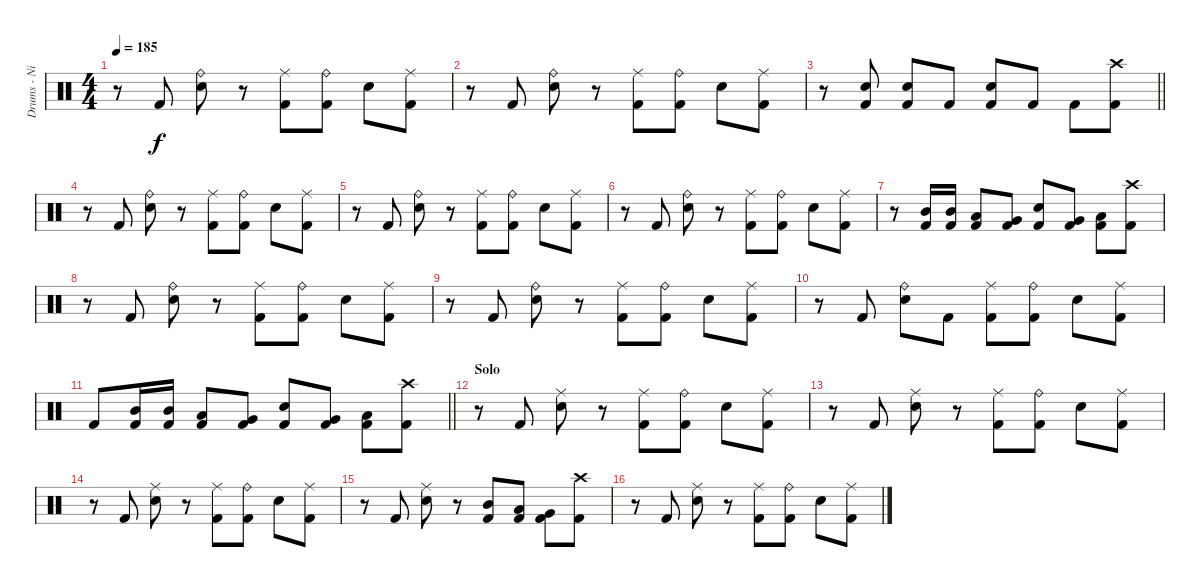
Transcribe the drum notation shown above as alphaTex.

\track ("Drums - Nicko" "Drums - Ni") {instrument percussion}
\staff {score}
\articulation defaults
\ts (4 4)
\tempo 185
\clef neutral
\ks c
r.8{dy f} "Kick (hit) 2".8 ("Ride (bell)" "Snare (hit) 2").8 r.8 ("Ride (middle)" "Kick (hit) 2").8 ("Ride (bell)" "Kick (hit) 2").8 "Snare (hit) 2".8 ("Ride (middle)" "Kick (hit) 2").8 |
r.8 "Kick (hit) 2".8 ("Ride (bell)" "Snare (hit) 2").8 r.8 ("Ride (middle)" "Kick (hit) 2").8 ("Ride (bell)" "Kick (hit) 2").8 "Snare (hit) 2".8 ("Ride (middle)" "Kick (hit) 2").8 |
\barLineRight lightlight
r.8 ("Snare (hit) 2" "Kick (hit) 2").8 ("Snare (hit) 2" "Kick (hit) 2").8 "Kick (hit) 2".8 ("Snare (hit) 2" "Kick (hit) 2").8 "Kick (hit) 2".8 "Kick (hit) 2".8 ("Crash high (hit)" "Kick (hit) 2").8 |
\section ("" "")
r.8 "Kick (hit) 2".8 ("Ride (bell)" "Snare (hit) 2").8 r.8 ("Ride (middle)" "Kick (hit) 2").8 ("Ride (bell)" "Kick (hit) 2").8 "Snare (hit) 2".8 ("Ride (middle)" "Kick (hit) 2").8 |
r.8 "Kick (hit) 2".8 ("Ride (bell)" "Snare (hit) 2").8 r.8 ("Ride (middle)" "Kick (hit) 2").8 ("Ride (bell)" "Kick (hit) 2").8 "Snare (hit) 2".8 ("Ride (middle)" "Kick (hit) 2").8 |
r.8 "Kick (hit) 2".8 ("Ride (bell)" "Snare (hit) 2").8 r.8 ("Ride (middle)" "Kick (hit) 2").8 ("Ride (bell)" "Kick (hit) 2").8 "Snare (hit) 2".8 ("Ride (middle)" "Kick (hit) 2").8 |
r.8 ("Mid Tom (hit)" "Kick (hit) 2").16 ("Mid Tom (hit)" "Kick (hit) 2").16 ("Low Tom (hit)" "Kick (hit) 2").8 ("Very Low Tom (hit)" "Kick (hit) 2").8 ("Snare (hit) 2" "Kick (hit) 2").8 ("Very Low Tom (hit)" "Kick (hit) 2").8 ("Low Floor Tom (hit)" "Kick (hit) 2").8 ("Crash high (hit)" "Kick (hit) 2").8 |
r.8 "Kick (hit) 2".8 ("Ride (bell)" "Snare (hit) 2").8 r.8 ("Ride (middle)" "Kick (hit) 2").8 ("Ride (bell)" "Kick (hit) 2").8 "Snare (hit) 2".8 ("Ride (middle)" "Kick (hit) 2").8 |
r.8 "Kick (hit) 2".8 ("Ride (bell)" "Snare (hit) 2").8 r.8 ("Ride (middle)" "Kick (hit) 2").8 ("Ride (bell)" "Kick (hit) 2").8 "Snare (hit) 2".8 ("Ride (middle)" "Kick (hit) 2").8 |
r.8 "Kick (hit) 2".8 ("Ride (bell)" "Snare (hit) 2").8 "Kick (hit) 2".8 ("Ride (middle)" "Kick (hit) 2").8 ("Ride (bell)" "Kick (hit) 2").8 "Snare (hit) 2".8 ("Ride (middle)" "Kick (hit) 2").8 |
\barLineRight lightlight "Kick (hit) 2".8
("Mid Tom (hit)" "Kick (hit) 2").16 ("Mid Tom (hit)" "Kick (hit) 2").16 ("Low Tom (hit)" "Kick (hit) 2").8 ("Very Low Tom (hit)" "Kick (hit) 2").8 ("Snare (hit) 2" "Kick (hit) 2").8 ("Very Low Tom (hit)" "Kick (hit) 2").8 ("Low Floor Tom (hit)" "Kick (hit) 2").8 ("Crash high (hit)" "Kick (hit) 2").8 |
\section ("" "Solo")
r.8 "Kick (hit) 2".8 ("Ride (middle)" "Snare (hit) 2").8 r.8 ("Ride (middle)" "Kick (hit) 2").8 ("Ride (bell)" "Kick (hit) 2").8 "Snare (hit) 2".8 ("Ride (middle)" "Kick (hit) 2").8 |
r.8 "Kick (hit) 2".8 ("Ride (middle)" "Snare (hit) 2").8 r.8 ("Ride (middle)" "Kick (hit) 2").8 ("Ride (bell)" "Kick (hit) 2").8 "Snare (hit) 2".8 ("Ride (middle)" "Kick (hit) 2").8 |
r.8 "Kick (hit) 2".8 ("Ride (middle)" "Snare (hit) 2").8 r.8 ("Ride (middle)" "Kick (hit) 2").8 ("Ride (bell)" "Kick (hit) 2").8 "Snare (hit) 2".8 ("Ride (middle)" "Kick (hit) 2").8 |
r.8 "Kick (hit) 2".8 ("Ride (middle)" "Snare (hit) 2").8 r.8 ("Mid Tom (hit)" "Kick (hit) 2").8 ("Low Tom (hit)" "Kick (hit) 2").8 ("Very Low Tom (hit)" "Kick (hit) 2").8 ("Crash high (hit)" "Kick (hit) 2").8 |
r.8 "Kick (hit) 2".8 ("Ride (middle)" "Snare (hit) 2").8 r.8 ("Ride (middle)" "Kick (hit) 2").8 ("Ride (bell)" "Kick (hit) 2").8 "Snare (hit) 2".8 ("Ride (middle)" "Kick (hit) 2").8
